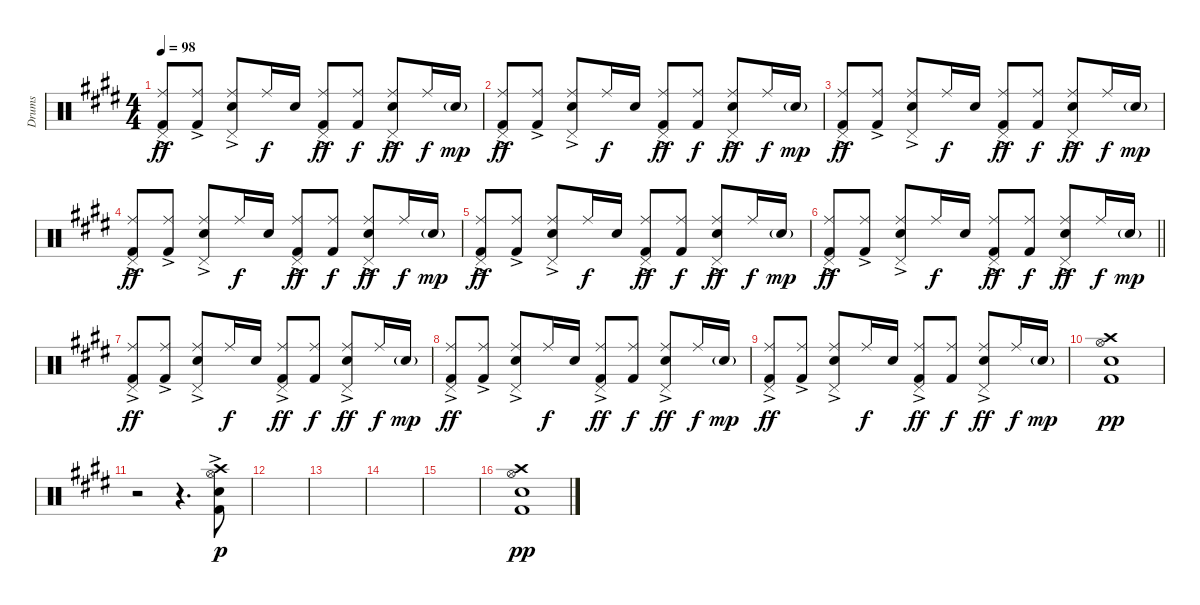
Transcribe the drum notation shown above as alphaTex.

\track ("Drums" "Drums") {instrument percussion}
\staff {score}
\articulation defaults
\ts (4 4)
\tempo 98
\clef neutral
\ks e
("Pedal Hi-Hat (hit)" "Ride (middle)" "Kick (hit) 2"{ac}).8{dy ff} ("Ride (middle)" "Kick (hit) 2"{ac}).8 ("Pedal Hi-Hat (hit)" "Snare (hit) 2"{ac} "Ride (middle)").8 "Ride (middle)".16{dy f} "Snare (hit) 2".16 ("Pedal Hi-Hat (hit)" "Ride (middle)" "Kick (hit) 2"{ac}).8{dy ff} ("Ride (middle)" "Kick (hit) 2").8{dy f} ("Pedal Hi-Hat (hit)" "Snare (hit) 2"{ac} "Ride (middle)").8{dy ff} "Ride (middle)".16{dy f} "Snare (hit) 2"{g}.16{dy mp} |
("Pedal Hi-Hat (hit)" "Ride (middle)" "Kick (hit) 2"{ac}).8{dy ff} ("Ride (middle)" "Kick (hit) 2"{ac}).8 ("Pedal Hi-Hat (hit)" "Snare (hit) 2"{ac} "Ride (middle)").8 "Ride (middle)".16{dy f} "Snare (hit) 2".16 ("Pedal Hi-Hat (hit)" "Ride (middle)" "Kick (hit) 2"{ac}).8{dy ff} ("Ride (middle)" "Kick (hit) 2").8{dy f} ("Pedal Hi-Hat (hit)" "Snare (hit) 2"{ac} "Ride (middle)").8{dy ff} "Ride (middle)".16{dy f} "Snare (hit) 2"{g}.16{dy mp} |
("Pedal Hi-Hat (hit)" "Ride (middle)" "Kick (hit) 2"{ac}).8{dy ff} ("Ride (middle)" "Kick (hit) 2"{ac}).8 ("Pedal Hi-Hat (hit)" "Snare (hit) 2"{ac} "Ride (middle)").8 "Ride (middle)".16{dy f} "Snare (hit) 2".16 ("Pedal Hi-Hat (hit)" "Ride (middle)" "Kick (hit) 2"{ac}).8{dy ff} ("Ride (middle)" "Kick (hit) 2").8{dy f} ("Pedal Hi-Hat (hit)" "Snare (hit) 2"{ac} "Ride (middle)").8{dy ff} "Ride (middle)".16{dy f} "Snare (hit) 2"{g}.16{dy mp} |
("Pedal Hi-Hat (hit)" "Ride (middle)" "Kick (hit) 2"{ac}).8{dy ff} ("Ride (middle)" "Kick (hit) 2"{ac}).8 ("Pedal Hi-Hat (hit)" "Snare (hit) 2"{ac} "Ride (middle)").8 "Ride (middle)".16{dy f} "Snare (hit) 2".16 ("Pedal Hi-Hat (hit)" "Ride (middle)" "Kick (hit) 2"{ac}).8{dy ff} ("Ride (middle)" "Kick (hit) 2").8{dy f} ("Pedal Hi-Hat (hit)" "Snare (hit) 2"{ac} "Ride (middle)").8{dy ff} "Ride (middle)".16{dy f} "Snare (hit) 2"{g}.16{dy mp} |
("Pedal Hi-Hat (hit)" "Ride (middle)" "Kick (hit) 2"{ac}).8{dy ff} ("Ride (middle)" "Kick (hit) 2"{ac}).8 ("Pedal Hi-Hat (hit)" "Snare (hit) 2"{ac} "Ride (middle)").8 "Ride (middle)".16{dy f} "Snare (hit) 2".16 ("Pedal Hi-Hat (hit)" "Ride (middle)" "Kick (hit) 2"{ac}).8{dy ff} ("Ride (middle)" "Kick (hit) 2").8{dy f} ("Pedal Hi-Hat (hit)" "Snare (hit) 2"{ac} "Ride (middle)").8{dy ff} "Ride (middle)".16{dy f} "Snare (hit) 2"{g}.16{dy mp} |
\barLineRight lightlight
("Pedal Hi-Hat (hit)" "Ride (middle)" "Kick (hit) 2"{ac}).8{dy ff} ("Ride (middle)" "Kick (hit) 2"{ac}).8 ("Pedal Hi-Hat (hit)" "Snare (hit) 2"{ac} "Ride (middle)").8 "Ride (middle)".16{dy f} "Snare (hit) 2".16 ("Pedal Hi-Hat (hit)" "Ride (middle)" "Kick (hit) 2"{ac}).8{dy ff} ("Ride (middle)" "Kick (hit) 2").8{dy f} ("Pedal Hi-Hat (hit)" "Snare (hit) 2"{ac} "Ride (middle)").8{dy ff} "Ride (middle)".16{dy f} "Snare (hit) 2"{g}.16{dy mp} |
("Pedal Hi-Hat (hit)" "Ride (middle)" "Kick (hit) 2"{ac}).8{dy ff} ("Ride (middle)" "Kick (hit) 2"{ac}).8 ("Pedal Hi-Hat (hit)" "Snare (hit) 2"{ac} "Ride (middle)").8 "Ride (middle)".16{dy f} "Snare (hit) 2".16 ("Pedal Hi-Hat (hit)" "Ride (middle)" "Kick (hit) 2"{ac}).8{dy ff} ("Ride (middle)" "Kick (hit) 2").8{dy f} ("Pedal Hi-Hat (hit)" "Snare (hit) 2"{ac} "Ride (middle)").8{dy ff} "Ride (middle)".16{dy f} "Snare (hit) 2"{g}.16{dy mp} |
("Pedal Hi-Hat (hit)" "Ride (middle)" "Kick (hit) 2"{ac}).8{dy ff} ("Ride (middle)" "Kick (hit) 2"{ac}).8 ("Pedal Hi-Hat (hit)" "Snare (hit) 2"{ac} "Ride (middle)").8 "Ride (middle)".16{dy f} "Snare (hit) 2".16 ("Pedal Hi-Hat (hit)" "Ride (middle)" "Kick (hit) 2"{ac}).8{dy ff} ("Ride (middle)" "Kick (hit) 2").8{dy f} ("Pedal Hi-Hat (hit)" "Snare (hit) 2"{ac} "Ride (middle)").8{dy ff} "Ride (middle)".16{dy f} "Snare (hit) 2"{g}.16{dy mp} |
("Pedal Hi-Hat (hit)" "Ride (middle)" "Kick (hit) 2"{ac}).8{dy ff} ("Ride (middle)" "Kick (hit) 2"{ac}).8 ("Pedal Hi-Hat (hit)" "Snare (hit) 2"{ac} "Ride (middle)").8 "Ride (middle)".16{dy f} "Snare (hit) 2".16 ("Pedal Hi-Hat (hit)" "Ride (middle)" "Kick (hit) 2"{ac}).8{dy ff} ("Ride (middle)" "Kick (hit) 2").8{dy f} ("Pedal Hi-Hat (hit)" "Snare (hit) 2"{ac} "Ride (middle)").8{dy ff} "Ride (middle)".16{dy f} "Snare (hit) 2"{g}.16{dy mp} |
("Crash high (hit)" "Snare (hit) 2" "Hi-Hat (open)" "Kick (hit) 2").1{dy pp} |
r.2 r.4{d} ("Crash high (hit)"{ac} "Snare (hit) 2"{ac} "Hi-Hat (open)"{ac} "Kick (hit) 2"{ac}).8{dy p} |
|
|
|
|
("Crash high (hit)" "Snare (hit) 2" "Hi-Hat (open)" "Kick (hit) 2").1{dy pp}
